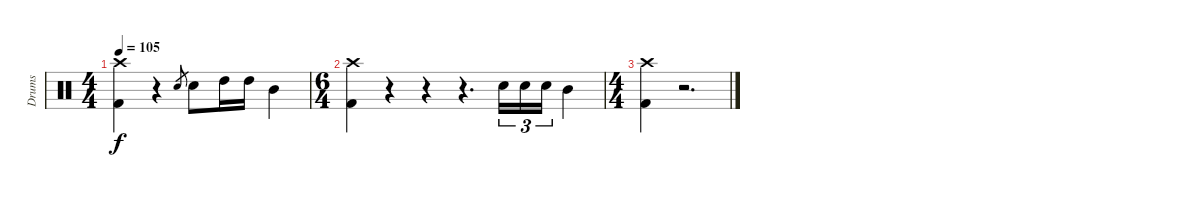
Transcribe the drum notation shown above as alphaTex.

\track ("Drums" "Drums") {instrument percussion}
\staff {score}
\articulation defaults
\ts (4 4)
\tempo 105
\clef neutral
\ks c
("Crash high (hit)" "Kick (hit) 2").4{dy f} r.4 "Electric Snare (hit)".8{gr} "Electric Snare (hit)".8 "High Tom (hit)".16 "High Tom (hit)".16 "Mid Tom (hit)".4 |
\ts (6 4)
("Crash high (hit)" "Kick (hit) 2").4 r.4 r.4 r.4{d} "Electric Snare (hit)".16{tu (3 2)} "Electric Snare (hit)".16{tu (3 2)} "Electric Snare (hit)".16{tu (3 2)} "Mid Tom (hit)".4 |
\ts (4 4)
("Crash high (hit)" "Kick (hit) 2").4 r.2{d}
